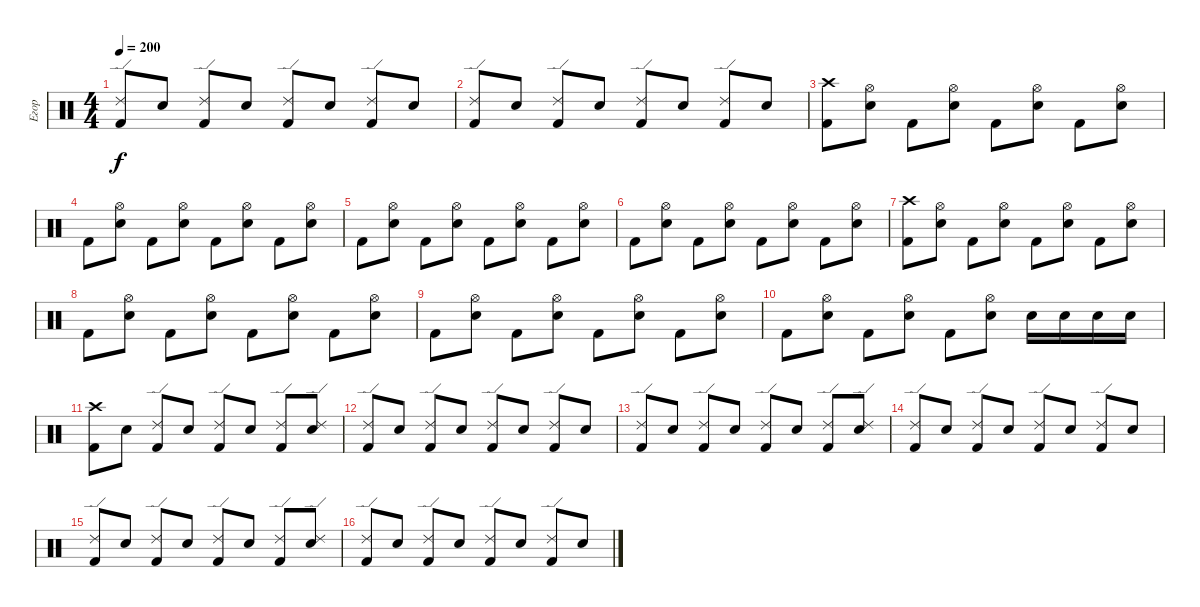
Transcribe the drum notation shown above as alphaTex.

\track ("Егор" "Егор") {instrument percussion}
\staff {score}
\articulation defaults
\ts (4 4)
\tempo 200
\clef neutral
\ks c
("Kick (hit) 2" "Ride (edge) 2").8{dy f} "Snare (hit) 2".8 ("Kick (hit) 2" "Ride (edge) 2").8 "Snare (hit) 2".8 ("Kick (hit) 2" "Ride (edge) 2").8 "Snare (hit) 2".8 ("Kick (hit) 2" "Ride (edge) 2").8 "Snare (hit) 2".8 |
("Kick (hit) 2" "Ride (edge) 2").8 "Snare (hit) 2".8 ("Kick (hit) 2" "Ride (edge) 2").8 "Snare (hit) 2".8 ("Kick (hit) 2" "Ride (edge) 2").8 "Snare (hit) 2".8 ("Kick (hit) 2" "Ride (edge) 2").8 "Snare (hit) 2".8 |
("Crash high (hit)" "Kick (hit) 2").8 ("Hi-Hat (open)" "Snare (hit) 2").8 "Kick (hit) 2".8 ("Hi-Hat (open)" "Snare (hit) 2").8 "Kick (hit) 2".8 ("Hi-Hat (open)" "Snare (hit) 2").8 "Kick (hit) 2".8 ("Hi-Hat (open)" "Snare (hit) 2").8 |
"Kick (hit) 2".8 ("Hi-Hat (open)" "Snare (hit) 2").8 "Kick (hit) 2".8 ("Hi-Hat (open)" "Snare (hit) 2").8 "Kick (hit) 2".8 ("Hi-Hat (open)" "Snare (hit) 2").8 "Kick (hit) 2".8 ("Hi-Hat (open)" "Snare (hit) 2").8 |
"Kick (hit) 2".8 ("Hi-Hat (open)" "Snare (hit) 2").8 "Kick (hit) 2".8 ("Hi-Hat (open)" "Snare (hit) 2").8 "Kick (hit) 2".8 ("Hi-Hat (open)" "Snare (hit) 2").8 "Kick (hit) 2".8 ("Hi-Hat (open)" "Snare (hit) 2").8 |
"Kick (hit) 2".8 ("Hi-Hat (open)" "Snare (hit) 2").8 "Kick (hit) 2".8 ("Hi-Hat (open)" "Snare (hit) 2").8 "Kick (hit) 2".8 ("Hi-Hat (open)" "Snare (hit) 2").8 "Kick (hit) 2".8 ("Hi-Hat (open)" "Snare (hit) 2").8 |
("Crash high (hit)" "Kick (hit) 2").8 ("Hi-Hat (open)" "Snare (hit) 2").8 "Kick (hit) 2".8 ("Hi-Hat (open)" "Snare (hit) 2").8 "Kick (hit) 2".8 ("Hi-Hat (open)" "Snare (hit) 2").8 "Kick (hit) 2".8 ("Hi-Hat (open)" "Snare (hit) 2").8 |
"Kick (hit) 2".8 ("Hi-Hat (open)" "Snare (hit) 2").8 "Kick (hit) 2".8 ("Hi-Hat (open)" "Snare (hit) 2").8 "Kick (hit) 2".8 ("Hi-Hat (open)" "Snare (hit) 2").8 "Kick (hit) 2".8 ("Hi-Hat (open)" "Snare (hit) 2").8 |
"Kick (hit) 2".8 ("Hi-Hat (open)" "Snare (hit) 2").8 "Kick (hit) 2".8 ("Hi-Hat (open)" "Snare (hit) 2").8 "Kick (hit) 2".8 ("Hi-Hat (open)" "Snare (hit) 2").8 "Kick (hit) 2".8 ("Hi-Hat (open)" "Snare (hit) 2").8 |
"Kick (hit) 2".8 ("Hi-Hat (open)" "Snare (hit) 2").8 "Kick (hit) 2".8 ("Hi-Hat (open)" "Snare (hit) 2").8 "Kick (hit) 2".8 ("Hi-Hat (open)" "Snare (hit) 2").8 "Snare (hit) 2".16 "Snare (hit) 2".16 "Snare (hit) 2".16 "Snare (hit) 2".16 |
("Kick (hit) 2" "Crash high (hit)").8 "Snare (hit) 2".8 ("Kick (hit) 2" "Ride (edge) 2").8 "Snare (hit) 2".8 ("Kick (hit) 2" "Ride (edge) 2").8 "Snare (hit) 2".8 ("Kick (hit) 2" "Ride (edge) 2").8 ("Snare (hit) 2" "Ride (edge) 2").8 |
("Kick (hit) 2" "Ride (edge) 2").8 "Snare (hit) 2".8 ("Kick (hit) 2" "Ride (edge) 2").8 "Snare (hit) 2".8 ("Kick (hit) 2" "Ride (edge) 2").8 "Snare (hit) 2".8 ("Kick (hit) 2" "Ride (edge) 2").8 "Snare (hit) 2".8 |
("Kick (hit) 2" "Ride (edge) 2").8 "Snare (hit) 2".8 ("Kick (hit) 2" "Ride (edge) 2").8 "Snare (hit) 2".8 ("Kick (hit) 2" "Ride (edge) 2").8 "Snare (hit) 2".8 ("Kick (hit) 2" "Ride (edge) 2").8 ("Snare (hit) 2" "Ride (edge) 2").8 |
("Kick (hit) 2" "Ride (edge) 2").8 "Snare (hit) 2".8 ("Kick (hit) 2" "Ride (edge) 2").8 "Snare (hit) 2".8 ("Kick (hit) 2" "Ride (edge) 2").8 "Snare (hit) 2".8 ("Kick (hit) 2" "Ride (edge) 2").8 "Snare (hit) 2".8 |
("Kick (hit) 2" "Ride (edge) 2").8 "Snare (hit) 2".8 ("Kick (hit) 2" "Ride (edge) 2").8 "Snare (hit) 2".8 ("Kick (hit) 2" "Ride (edge) 2").8 "Snare (hit) 2".8 ("Kick (hit) 2" "Ride (edge) 2").8 ("Snare (hit) 2" "Ride (edge) 2").8 |
("Kick (hit) 2" "Ride (edge) 2").8 "Snare (hit) 2".8 ("Kick (hit) 2" "Ride (edge) 2").8 "Snare (hit) 2".8 ("Kick (hit) 2" "Ride (edge) 2").8 "Snare (hit) 2".8 ("Kick (hit) 2" "Ride (edge) 2").8 "Snare (hit) 2".8
